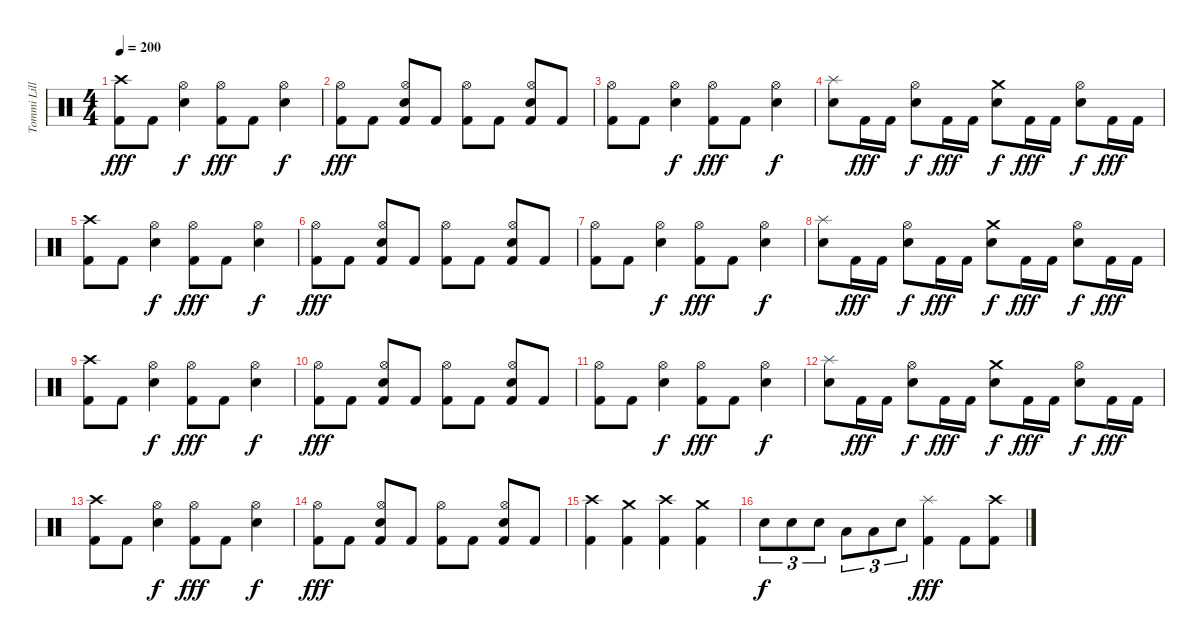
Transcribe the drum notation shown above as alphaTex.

\track ("Tommi Lillman" "Tommi Lill") {instrument percussion}
\staff {score}
\articulation defaults
\ts (4 4)
\tempo 200
\clef neutral
\ks c
("Crash high (hit)" "Kick (hit) 2").8{dy fff} "Kick (hit) 2".8 ("Hi-Hat (open)" "Electric Snare (hit)").4{dy f} ("Hi-Hat (open)" "Kick (hit) 2").8{dy fff} "Kick (hit) 2".8 ("Hi-Hat (open)" "Electric Snare (hit)").4{dy f} |
("Hi-Hat (open)" "Kick (hit) 2").8{dy fff} "Kick (hit) 2".8 ("Hi-Hat (open)" "Electric Snare (hit)" "Kick (hit) 2").8 "Kick (hit) 2".8 ("Hi-Hat (open)" "Kick (hit) 2").8 "Kick (hit) 2".8 ("Hi-Hat (open)" "Electric Snare (hit)" "Kick (hit) 2").8 "Kick (hit) 2".8 |
("Hi-Hat (open)" "Kick (hit) 2").8 "Kick (hit) 2".8 ("Hi-Hat (open)" "Electric Snare (hit)").4{dy f} ("Hi-Hat (open)" "Kick (hit) 2").8{dy fff} "Kick (hit) 2".8 ("Hi-Hat (open)" "Electric Snare (hit)").4{dy f} |
("Splash (hit)" "Electric Snare (hit)").8 "Kick (hit) 2".16{dy fff} "Kick (hit) 2".16 ("Hi-Hat (open)" "Electric Snare (hit)").8{dy f} "Kick (hit) 2".16{dy fff} "Kick (hit) 2".16 ("Crash medium (hit)" "Electric Snare (hit)").8{dy f} "Kick (hit) 2".16{dy fff} "Kick (hit) 2".16 ("Hi-Hat (open)" "Electric Snare (hit)").8{dy f} "Kick (hit) 2".16{dy fff} "Kick (hit) 2".16 |
("Crash high (hit)" "Kick (hit) 2").8 "Kick (hit) 2".8 ("Hi-Hat (open)" "Electric Snare (hit)").4{dy f} ("Hi-Hat (open)" "Kick (hit) 2").8{dy fff} "Kick (hit) 2".8 ("Hi-Hat (open)" "Electric Snare (hit)").4{dy f} |
("Hi-Hat (open)" "Kick (hit) 2").8{dy fff} "Kick (hit) 2".8 ("Hi-Hat (open)" "Electric Snare (hit)" "Kick (hit) 2").8 "Kick (hit) 2".8 ("Hi-Hat (open)" "Kick (hit) 2").8 "Kick (hit) 2".8 ("Hi-Hat (open)" "Electric Snare (hit)" "Kick (hit) 2").8 "Kick (hit) 2".8 |
("Hi-Hat (open)" "Kick (hit) 2").8 "Kick (hit) 2".8 ("Hi-Hat (open)" "Electric Snare (hit)").4{dy f} ("Hi-Hat (open)" "Kick (hit) 2").8{dy fff} "Kick (hit) 2".8 ("Hi-Hat (open)" "Electric Snare (hit)").4{dy f} |
("Splash (hit)" "Electric Snare (hit)").8 "Kick (hit) 2".16{dy fff} "Kick (hit) 2".16 ("Hi-Hat (open)" "Electric Snare (hit)").8{dy f} "Kick (hit) 2".16{dy fff} "Kick (hit) 2".16 ("Crash medium (hit)" "Electric Snare (hit)").8{dy f} "Kick (hit) 2".16{dy fff} "Kick (hit) 2".16 ("Hi-Hat (open)" "Electric Snare (hit)").8{dy f} "Kick (hit) 2".16{dy fff} "Kick (hit) 2".16 |
("Crash high (hit)" "Kick (hit) 2").8 "Kick (hit) 2".8 ("Hi-Hat (open)" "Electric Snare (hit)").4{dy f} ("Hi-Hat (open)" "Kick (hit) 2").8{dy fff} "Kick (hit) 2".8 ("Hi-Hat (open)" "Electric Snare (hit)").4{dy f} |
("Hi-Hat (open)" "Kick (hit) 2").8{dy fff} "Kick (hit) 2".8 ("Hi-Hat (open)" "Electric Snare (hit)" "Kick (hit) 2").8 "Kick (hit) 2".8 ("Hi-Hat (open)" "Kick (hit) 2").8 "Kick (hit) 2".8 ("Hi-Hat (open)" "Electric Snare (hit)" "Kick (hit) 2").8 "Kick (hit) 2".8 |
("Hi-Hat (open)" "Kick (hit) 2").8 "Kick (hit) 2".8 ("Hi-Hat (open)" "Electric Snare (hit)").4{dy f} ("Hi-Hat (open)" "Kick (hit) 2").8{dy fff} "Kick (hit) 2".8 ("Hi-Hat (open)" "Electric Snare (hit)").4{dy f} |
("Splash (hit)" "Electric Snare (hit)").8 "Kick (hit) 2".16{dy fff} "Kick (hit) 2".16 ("Hi-Hat (open)" "Electric Snare (hit)").8{dy f} "Kick (hit) 2".16{dy fff} "Kick (hit) 2".16 ("Crash medium (hit)" "Electric Snare (hit)").8{dy f} "Kick (hit) 2".16{dy fff} "Kick (hit) 2".16 ("Hi-Hat (open)" "Electric Snare (hit)").8{dy f} "Kick (hit) 2".16{dy fff} "Kick (hit) 2".16 |
("Crash high (hit)" "Kick (hit) 2").8 "Kick (hit) 2".8 ("Hi-Hat (open)" "Electric Snare (hit)").4{dy f} ("Hi-Hat (open)" "Kick (hit) 2").8{dy fff} "Kick (hit) 2".8 ("Hi-Hat (open)" "Electric Snare (hit)").4{dy f} |
("Hi-Hat (open)" "Kick (hit) 2").8{dy fff} "Kick (hit) 2".8 ("Hi-Hat (open)" "Electric Snare (hit)" "Kick (hit) 2").8 "Kick (hit) 2".8 ("Hi-Hat (open)" "Kick (hit) 2").8 "Kick (hit) 2".8 ("Hi-Hat (open)" "Electric Snare (hit)" "Kick (hit) 2").8 "Kick (hit) 2".8 |
("Crash high (hit)" "Kick (hit) 2").4 ("Crash medium (hit)" "Kick (hit) 2").4 ("Crash high (hit)" "Kick (hit) 2").4 ("Crash medium (hit)" "Kick (hit) 2").4 |
"Electric Snare (hit)".8{tu (3 2) dy f} "Electric Snare (hit)".8{tu (3 2)} "Electric Snare (hit)".8{tu (3 2)} "Low Tom (hit)".8{tu (3 2)} "Low Tom (hit)".8{tu (3 2)} "Electric Snare (hit)".8{tu (3 2)} ("Splash (hit)" "Kick (hit) 2").4{dy fff} "Kick (hit) 2".8 ("Crash high (hit)" "Kick (hit) 2").8
